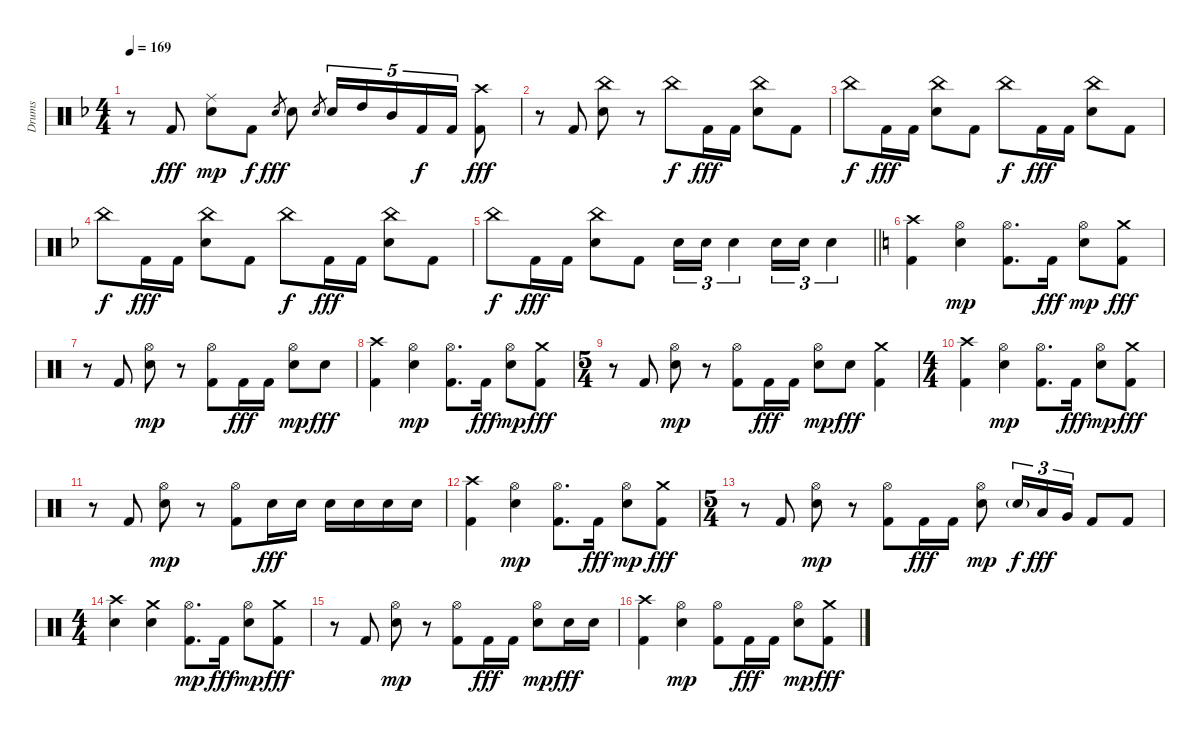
\track ("Drums" "Drums") {instrument percussion}
\staff {score}
\articulation defaults
\ts (4 4)
\tempo 169
\clef neutral
\ks f
r.8{dy mp} "Kick (hit) 2".8{dy fff} ("Electric Snare (hit)" "Ride (middle)").8{dy mp} "Kick (hit) 2".8{dy f} "Electric Snare (hit)".8{gr dy fff} "Electric Snare (hit)".8 "Electric Snare (hit)".8{gr} "Electric Snare (hit)".16{tu (5 4)} "High Tom (hit)".16{tu (5 4)} "Mid Tom (hit)".16{tu (5 4)} "Kick (hit) 2".16{tu (5 4) dy f} "Kick (hit) 2".16{tu (5 4)} ("Kick (hit) 2" "Crash high (hit)").8{dy fff} |
r.8 "Kick (hit) 2".8 ("Electric Snare (hit)" "China (hit)").8 r.8 "China (hit)".8{dy f} "Kick (hit) 2".16{dy fff} "Kick (hit) 2".16 ("Electric Snare (hit)" "China (hit)").8 "Kick (hit) 2".8 |
"China (hit)".8{dy f} "Kick (hit) 2".16{dy fff} "Kick (hit) 2".16 ("Electric Snare (hit)" "China (hit)").8 "Kick (hit) 2".8 "China (hit)".8{dy f} "Kick (hit) 2".16{dy fff} "Kick (hit) 2".16 ("Electric Snare (hit)" "China (hit)").8 "Kick (hit) 2".8 |
"China (hit)".8{dy f} "Kick (hit) 2".16{dy fff} "Kick (hit) 2".16 ("Electric Snare (hit)" "China (hit)").8 "Kick (hit) 2".8 "China (hit)".8{dy f} "Kick (hit) 2".16{dy fff} "Kick (hit) 2".16 ("Electric Snare (hit)" "China (hit)").8 "Kick (hit) 2".8 |
\barLineRight lightlight "China (hit)".8{dy f} "Kick (hit) 2".16{dy fff} "Kick (hit) 2".16
("Electric Snare (hit)" "China (hit)").8 "Kick (hit) 2".8 "Electric Snare (hit)".16{tu (3 2)} "Electric Snare (hit)".16{tu (3 2)} "Electric Snare (hit)".4{tu (3 2)} "Electric Snare (hit)".16{tu (3 2)} "Electric Snare (hit)".16{tu (3 2)} "Electric Snare (hit)".4{tu (3 2)} |
\ks c
("Kick (hit) 2" "Crash high (hit)").4{volume 8} ("Electric Snare (hit)" "Hi-Hat (open)").4{dy mp} ("Kick (hit) 2" "Hi-Hat (open)").8{d} "Kick (hit) 2".16{dy fff} ("Electric Snare (hit)" "Hi-Hat (open)").8{dy mp} ("Kick (hit) 2" "Crash medium (hit)").8{dy fff} |
r.8 "Kick (hit) 2".8 ("Electric Snare (hit)" "Hi-Hat (open)").8{dy mp} r.8 ("Kick (hit) 2" "Hi-Hat (open)").8 "Kick (hit) 2".16{dy fff} "Kick (hit) 2".16 ("Electric Snare (hit)" "Hi-Hat (open)").8{dy mp} "Electric Snare (hit)".8{dy fff} |
("Kick (hit) 2" "Crash high (hit)").4 ("Electric Snare (hit)" "Hi-Hat (open)").4{dy mp} ("Kick (hit) 2" "Hi-Hat (open)").8{d} "Kick (hit) 2".16{dy fff} ("Electric Snare (hit)" "Hi-Hat (open)").8{dy mp} ("Kick (hit) 2" "Crash medium (hit)").8{dy fff} |
\ts (5 4)
r.8 "Kick (hit) 2".8 ("Electric Snare (hit)" "Hi-Hat (open)").8{dy mp} r.8 ("Kick (hit) 2" "Hi-Hat (open)").8 "Kick (hit) 2".16{dy fff} "Kick (hit) 2".16 ("Electric Snare (hit)" "Hi-Hat (open)").8{dy mp} "Electric Snare (hit)".8{dy fff} ("Kick (hit) 2" "Crash medium (hit)").4 |
\ts (4 4)
("Kick (hit) 2" "Crash high (hit)").4 ("Electric Snare (hit)" "Hi-Hat (open)").4{dy mp} ("Kick (hit) 2" "Hi-Hat (open)").8{d} "Kick (hit) 2".16{dy fff} ("Electric Snare (hit)" "Hi-Hat (open)").8{dy mp} ("Kick (hit) 2" "Crash medium (hit)").8{dy fff} |
r.8 "Kick (hit) 2".8 ("Electric Snare (hit)" "Hi-Hat (open)").8{dy mp} r.8 ("Kick (hit) 2" "Hi-Hat (open)").8 "Electric Snare (hit)".16{dy fff} "Electric Snare (hit)".16 "Electric Snare (hit)".16 "Electric Snare (hit)".16 "Electric Snare (hit)".16 "Electric Snare (hit)".16 |
("Kick (hit) 2" "Crash high (hit)").4 ("Electric Snare (hit)" "Hi-Hat (open)").4{dy mp} ("Kick (hit) 2" "Hi-Hat (open)").8{d} "Kick (hit) 2".16{dy fff} ("Electric Snare (hit)" "Hi-Hat (open)").8{dy mp} ("Kick (hit) 2" "Crash medium (hit)").8{dy fff} |
\ts (5 4)
r.8 "Kick (hit) 2".8 ("Electric Snare (hit)" "Hi-Hat (open)").8{dy mp} r.8 ("Kick (hit) 2" "Hi-Hat (open)").8 "Kick (hit) 2".16{dy fff} "Kick (hit) 2".16 ("Electric Snare (hit)" "Hi-Hat (open)").8{dy mp} "Electric Snare (hit)"{g}.16{tu (3 2) dy f} "Low Tom (hit)".16{tu (3 2) dy fff} "Very Low Tom (hit)".16{tu (3 2)} "Kick (hit) 2".8 "Kick (hit) 2".8 |
\ts (4 4)
("Electric Snare (hit)" "Crash high (hit)").4 ("Electric Snare (hit)" "Crash medium (hit)").4 ("Kick (hit) 2" "Hi-Hat (open)").8{d dy mp} "Kick (hit) 2".16{dy fff} ("Electric Snare (hit)" "Hi-Hat (open)").8{dy mp} ("Kick (hit) 2" "Crash medium (hit)").8{dy fff} |
r.8 "Kick (hit) 2".8 ("Electric Snare (hit)" "Hi-Hat (open)").8{dy mp} r.8 ("Kick (hit) 2" "Hi-Hat (open)").8 "Kick (hit) 2".16{dy fff} "Kick (hit) 2".16 ("Electric Snare (hit)" "Hi-Hat (open)").8{dy mp} "Electric Snare (hit)".16{dy fff} "Electric Snare (hit)".16 |
("Kick (hit) 2" "Crash high (hit)").4 ("Electric Snare (hit)" "Hi-Hat (open)").4{dy mp} ("Kick (hit) 2" "Hi-Hat (open)").8 "Kick (hit) 2".16{dy fff} "Kick (hit) 2".16 ("Electric Snare (hit)" "Hi-Hat (open)").8{dy mp} ("Kick (hit) 2" "Crash medium (hit)").8{dy fff}
